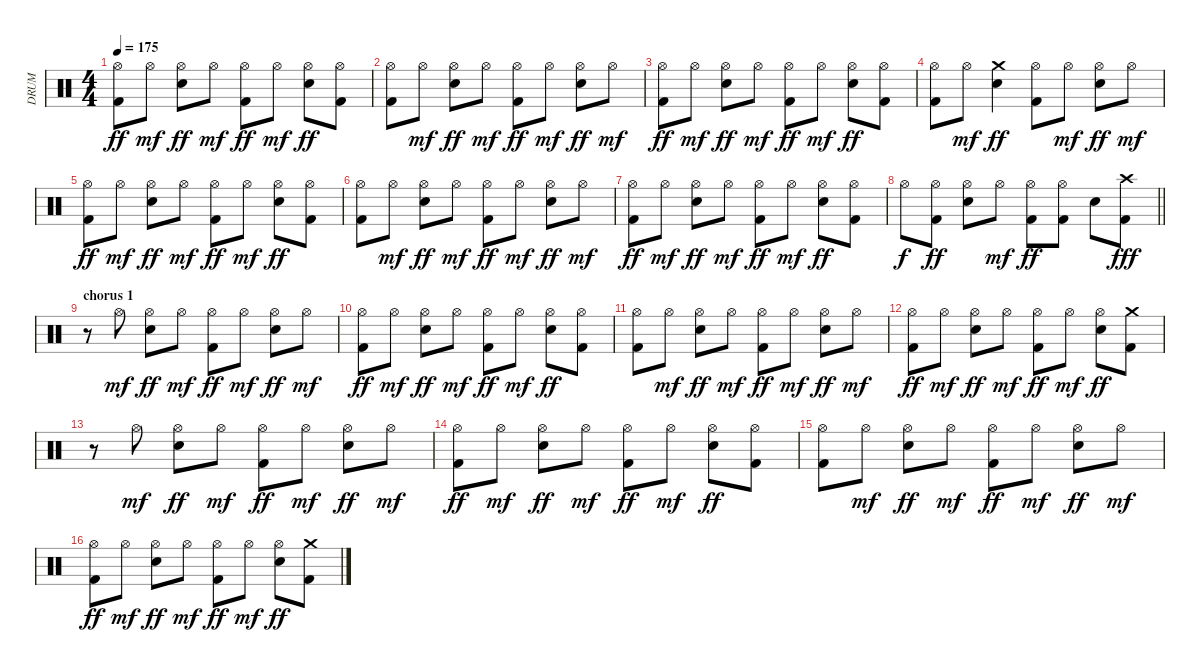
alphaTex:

\track ("DRUM" "DRUM") {instrument percussion}
\staff {score}
\articulation defaults
\ts (4 4)
\tempo 175
\clef neutral
\ks c
("Hi-Hat (open)" "Kick (hit) 2").8{dy ff} "Hi-Hat (open)".8{dy mf} ("Hi-Hat (open)" "Snare (hit) 2").8{dy ff} "Hi-Hat (open)".8{dy mf} ("Hi-Hat (open)" "Kick (hit) 2").8{dy ff} "Hi-Hat (open)".8{dy mf} ("Hi-Hat (open)" "Snare (hit) 2").8{dy ff} ("Hi-Hat (open)" "Kick (hit) 2").8 |
("Hi-Hat (open)" "Kick (hit) 2").8 "Hi-Hat (open)".8{dy mf} ("Hi-Hat (open)" "Snare (hit) 2").8{dy ff} "Hi-Hat (open)".8{dy mf} ("Hi-Hat (open)" "Kick (hit) 2").8{dy ff} "Hi-Hat (open)".8{dy mf} ("Hi-Hat (open)" "Snare (hit) 2").8{dy ff} "Hi-Hat (open)".8{dy mf} |
("Hi-Hat (open)" "Kick (hit) 2").8{dy ff} "Hi-Hat (open)".8{dy mf} ("Hi-Hat (open)" "Snare (hit) 2").8{dy ff} "Hi-Hat (open)".8{dy mf} ("Hi-Hat (open)" "Kick (hit) 2").8{dy ff} "Hi-Hat (open)".8{dy mf} ("Hi-Hat (open)" "Snare (hit) 2").8{dy ff} ("Hi-Hat (open)" "Kick (hit) 2").8 |
("Hi-Hat (open)" "Kick (hit) 2").8 "Hi-Hat (open)".8{dy mf} ("Crash medium (hit)" "Snare (hit) 2").4{dy ff} ("Hi-Hat (open)" "Kick (hit) 2").8 "Hi-Hat (open)".8{dy mf} ("Hi-Hat (open)" "Snare (hit) 2").8{dy ff} "Hi-Hat (open)".8{dy mf} |
("Hi-Hat (open)" "Kick (hit) 2").8{dy ff} "Hi-Hat (open)".8{dy mf} ("Hi-Hat (open)" "Snare (hit) 2").8{dy ff} "Hi-Hat (open)".8{dy mf} ("Hi-Hat (open)" "Kick (hit) 2").8{dy ff} "Hi-Hat (open)".8{dy mf} ("Hi-Hat (open)" "Snare (hit) 2").8{dy ff} ("Hi-Hat (open)" "Kick (hit) 2").8 |
("Hi-Hat (open)" "Kick (hit) 2").8 "Hi-Hat (open)".8{dy mf} ("Hi-Hat (open)" "Snare (hit) 2").8{dy ff} "Hi-Hat (open)".8{dy mf} ("Hi-Hat (open)" "Kick (hit) 2").8{dy ff} "Hi-Hat (open)".8{dy mf} ("Hi-Hat (open)" "Snare (hit) 2").8{dy ff} "Hi-Hat (open)".8{dy mf} |
("Hi-Hat (open)" "Kick (hit) 2").8{dy ff} "Hi-Hat (open)".8{dy mf} ("Hi-Hat (open)" "Snare (hit) 2").8{dy ff} "Hi-Hat (open)".8{dy mf} ("Hi-Hat (open)" "Kick (hit) 2").8{dy ff} "Hi-Hat (open)".8{dy mf} ("Hi-Hat (open)" "Snare (hit) 2").8{dy ff} ("Hi-Hat (open)" "Kick (hit) 2").8 |
\barLineRight lightlight "Hi-Hat (open)".8{dy f}
("Hi-Hat (open)" "Kick (hit) 2").8{dy ff} ("Hi-Hat (open)" "Snare (hit) 2").8 "Hi-Hat (open)".8{dy mf} ("Hi-Hat (open)" "Kick (hit) 2").8{dy ff} ("Hi-Hat (open)" "Kick (hit) 2").8 "Snare (hit) 2".8 ("Crash high (hit)" "Kick (hit) 2").8{dy fff} |
\section ("" "chorus 1")
r.8 "Hi-Hat (open)".8{dy mf} ("Hi-Hat (open)" "Snare (hit) 2").8{dy ff} "Hi-Hat (open)".8{dy mf} ("Hi-Hat (open)" "Kick (hit) 2").8{dy ff} "Hi-Hat (open)".8{dy mf} ("Hi-Hat (open)" "Snare (hit) 2").8{dy ff} "Hi-Hat (open)".8{dy mf} |
("Hi-Hat (open)" "Kick (hit) 2").8{dy ff} "Hi-Hat (open)".8{dy mf} ("Hi-Hat (open)" "Snare (hit) 2").8{dy ff} "Hi-Hat (open)".8{dy mf} ("Hi-Hat (open)" "Kick (hit) 2").8{dy ff} "Hi-Hat (open)".8{dy mf} ("Hi-Hat (open)" "Snare (hit) 2").8{dy ff} ("Hi-Hat (open)" "Kick (hit) 2").8 |
("Hi-Hat (open)" "Kick (hit) 2").8 "Hi-Hat (open)".8{dy mf} ("Hi-Hat (open)" "Snare (hit) 2").8{dy ff} "Hi-Hat (open)".8{dy mf} ("Hi-Hat (open)" "Kick (hit) 2").8{dy ff} "Hi-Hat (open)".8{dy mf} ("Hi-Hat (open)" "Snare (hit) 2").8{dy ff} "Hi-Hat (open)".8{dy mf} |
("Hi-Hat (open)" "Kick (hit) 2").8{dy ff} "Hi-Hat (open)".8{dy mf} ("Hi-Hat (open)" "Snare (hit) 2").8{dy ff} "Hi-Hat (open)".8{dy mf} ("Hi-Hat (open)" "Kick (hit) 2").8{dy ff} "Hi-Hat (open)".8{dy mf} ("Hi-Hat (open)" "Snare (hit) 2").8{dy ff} ("Crash medium (hit)" "Kick (hit) 2").8 |
r.8 "Hi-Hat (open)".8{dy mf} ("Hi-Hat (open)" "Snare (hit) 2").8{dy ff} "Hi-Hat (open)".8{dy mf} ("Hi-Hat (open)" "Kick (hit) 2").8{dy ff} "Hi-Hat (open)".8{dy mf} ("Hi-Hat (open)" "Snare (hit) 2").8{dy ff} "Hi-Hat (open)".8{dy mf} |
("Hi-Hat (open)" "Kick (hit) 2").8{dy ff} "Hi-Hat (open)".8{dy mf} ("Hi-Hat (open)" "Snare (hit) 2").8{dy ff} "Hi-Hat (open)".8{dy mf} ("Hi-Hat (open)" "Kick (hit) 2").8{dy ff} "Hi-Hat (open)".8{dy mf} ("Hi-Hat (open)" "Snare (hit) 2").8{dy ff} ("Hi-Hat (open)" "Kick (hit) 2").8 |
("Hi-Hat (open)" "Kick (hit) 2").8 "Hi-Hat (open)".8{dy mf} ("Hi-Hat (open)" "Snare (hit) 2").8{dy ff} "Hi-Hat (open)".8{dy mf} ("Hi-Hat (open)" "Kick (hit) 2").8{dy ff} "Hi-Hat (open)".8{dy mf} ("Hi-Hat (open)" "Snare (hit) 2").8{dy ff} "Hi-Hat (open)".8{dy mf} |
("Hi-Hat (open)" "Kick (hit) 2").8{dy ff} "Hi-Hat (open)".8{dy mf} ("Hi-Hat (open)" "Snare (hit) 2").8{dy ff} "Hi-Hat (open)".8{dy mf} ("Hi-Hat (open)" "Kick (hit) 2").8{dy ff} "Hi-Hat (open)".8{dy mf} ("Hi-Hat (open)" "Snare (hit) 2").8{dy ff} ("Crash medium (hit)" "Kick (hit) 2").8
